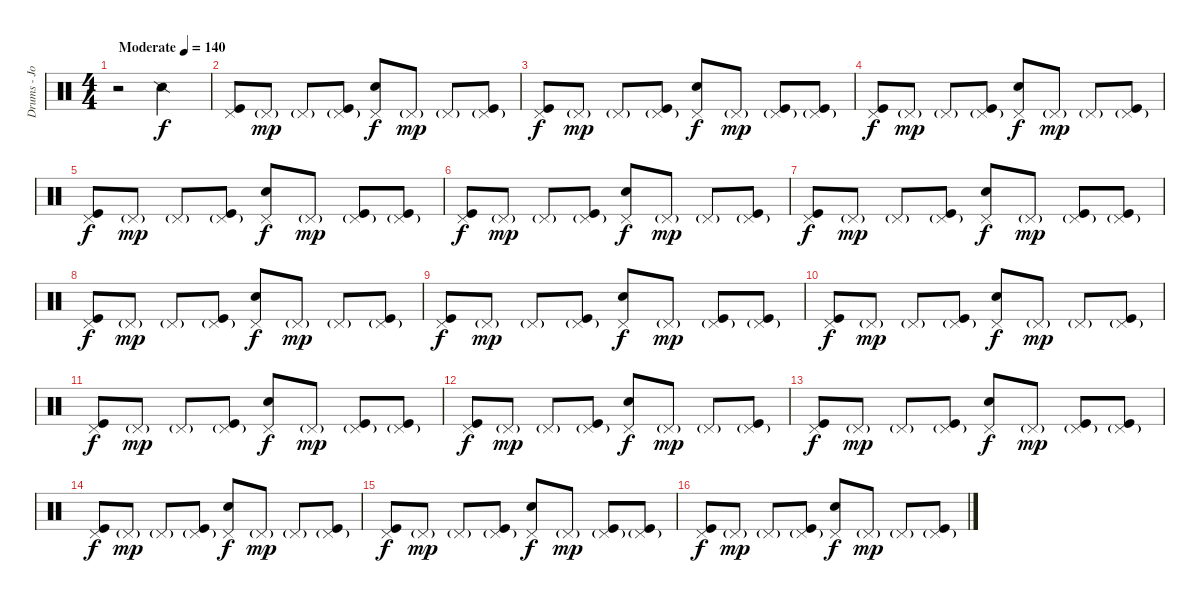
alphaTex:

\track ("Drums - Josh Klinghoffer" "Drums - Jo") {instrument percussion}
\staff {score}
\articulation defaults
\ts (4 4)
\tempo (140 "Moderate")
\clef neutral
\ks c
r.2{dy f} "Snare (side stick) 2".2 |
("Pedal Hi-Hat (hit)" "Kick (hit)").8 "Pedal Hi-Hat (hit)"{g}.8{dy mp} "Pedal Hi-Hat (hit)"{g}.8 ("Pedal Hi-Hat (hit)"{g} "Kick (hit)").8 ("Pedal Hi-Hat (hit)" "Electric Snare (hit)").8{dy f} "Pedal Hi-Hat (hit)"{g}.8{dy mp} "Pedal Hi-Hat (hit)"{g}.8 ("Pedal Hi-Hat (hit)"{g} "Kick (hit)").8 |
("Pedal Hi-Hat (hit)" "Kick (hit)").8{dy f} "Pedal Hi-Hat (hit)"{g}.8{dy mp} "Pedal Hi-Hat (hit)"{g}.8 ("Pedal Hi-Hat (hit)"{g} "Kick (hit)").8 ("Pedal Hi-Hat (hit)" "Electric Snare (hit)").8{dy f} "Pedal Hi-Hat (hit)"{g}.8{dy mp} ("Pedal Hi-Hat (hit)"{g} "Kick (hit)").8 ("Pedal Hi-Hat (hit)"{g} "Kick (hit)").8 |
("Pedal Hi-Hat (hit)" "Kick (hit)").8{dy f} "Pedal Hi-Hat (hit)"{g}.8{dy mp} "Pedal Hi-Hat (hit)"{g}.8 ("Pedal Hi-Hat (hit)"{g} "Kick (hit)").8 ("Pedal Hi-Hat (hit)" "Electric Snare (hit)").8{dy f} "Pedal Hi-Hat (hit)"{g}.8{dy mp} "Pedal Hi-Hat (hit)"{g}.8 ("Pedal Hi-Hat (hit)"{g} "Kick (hit)").8 |
("Pedal Hi-Hat (hit)" "Kick (hit)").8{dy f} "Pedal Hi-Hat (hit)"{g}.8{dy mp} "Pedal Hi-Hat (hit)"{g}.8 ("Pedal Hi-Hat (hit)"{g} "Kick (hit)").8 ("Pedal Hi-Hat (hit)" "Electric Snare (hit)").8{dy f} "Pedal Hi-Hat (hit)"{g}.8{dy mp} ("Pedal Hi-Hat (hit)"{g} "Kick (hit)").8 ("Pedal Hi-Hat (hit)"{g} "Kick (hit)").8 |
("Pedal Hi-Hat (hit)" "Kick (hit)").8{dy f} "Pedal Hi-Hat (hit)"{g}.8{dy mp} "Pedal Hi-Hat (hit)"{g}.8 ("Pedal Hi-Hat (hit)"{g} "Kick (hit)").8 ("Pedal Hi-Hat (hit)" "Electric Snare (hit)").8{dy f} "Pedal Hi-Hat (hit)"{g}.8{dy mp} "Pedal Hi-Hat (hit)"{g}.8 ("Pedal Hi-Hat (hit)"{g} "Kick (hit)").8 |
("Pedal Hi-Hat (hit)" "Kick (hit)").8{dy f} "Pedal Hi-Hat (hit)"{g}.8{dy mp} "Pedal Hi-Hat (hit)"{g}.8 ("Pedal Hi-Hat (hit)"{g} "Kick (hit)").8 ("Pedal Hi-Hat (hit)" "Electric Snare (hit)").8{dy f} "Pedal Hi-Hat (hit)"{g}.8{dy mp} ("Pedal Hi-Hat (hit)"{g} "Kick (hit)").8 ("Pedal Hi-Hat (hit)"{g} "Kick (hit)").8 |
("Pedal Hi-Hat (hit)" "Kick (hit)").8{dy f} "Pedal Hi-Hat (hit)"{g}.8{dy mp} "Pedal Hi-Hat (hit)"{g}.8 ("Pedal Hi-Hat (hit)"{g} "Kick (hit)").8 ("Pedal Hi-Hat (hit)" "Electric Snare (hit)").8{dy f} "Pedal Hi-Hat (hit)"{g}.8{dy mp} "Pedal Hi-Hat (hit)"{g}.8 ("Pedal Hi-Hat (hit)"{g} "Kick (hit)").8 |
("Pedal Hi-Hat (hit)" "Kick (hit)").8{dy f} "Pedal Hi-Hat (hit)"{g}.8{dy mp} "Pedal Hi-Hat (hit)"{g}.8 ("Pedal Hi-Hat (hit)"{g} "Kick (hit)").8 ("Pedal Hi-Hat (hit)" "Electric Snare (hit)").8{dy f} "Pedal Hi-Hat (hit)"{g}.8{dy mp} ("Pedal Hi-Hat (hit)"{g} "Kick (hit)").8 ("Pedal Hi-Hat (hit)"{g} "Kick (hit)").8 |
("Pedal Hi-Hat (hit)" "Kick (hit)").8{dy f} "Pedal Hi-Hat (hit)"{g}.8{dy mp} "Pedal Hi-Hat (hit)"{g}.8 ("Pedal Hi-Hat (hit)"{g} "Kick (hit)").8 ("Pedal Hi-Hat (hit)" "Electric Snare (hit)").8{dy f} "Pedal Hi-Hat (hit)"{g}.8{dy mp} "Pedal Hi-Hat (hit)"{g}.8 ("Pedal Hi-Hat (hit)"{g} "Kick (hit)").8 |
("Pedal Hi-Hat (hit)" "Kick (hit)").8{dy f} "Pedal Hi-Hat (hit)"{g}.8{dy mp} "Pedal Hi-Hat (hit)"{g}.8 ("Pedal Hi-Hat (hit)"{g} "Kick (hit)").8 ("Pedal Hi-Hat (hit)" "Electric Snare (hit)").8{dy f} "Pedal Hi-Hat (hit)"{g}.8{dy mp} ("Pedal Hi-Hat (hit)"{g} "Kick (hit)").8 ("Pedal Hi-Hat (hit)"{g} "Kick (hit)").8 |
("Pedal Hi-Hat (hit)" "Kick (hit)").8{dy f} "Pedal Hi-Hat (hit)"{g}.8{dy mp} "Pedal Hi-Hat (hit)"{g}.8 ("Pedal Hi-Hat (hit)"{g} "Kick (hit)").8 ("Pedal Hi-Hat (hit)" "Electric Snare (hit)").8{dy f} "Pedal Hi-Hat (hit)"{g}.8{dy mp} "Pedal Hi-Hat (hit)"{g}.8 ("Pedal Hi-Hat (hit)"{g} "Kick (hit)").8 |
("Pedal Hi-Hat (hit)" "Kick (hit)").8{dy f} "Pedal Hi-Hat (hit)"{g}.8{dy mp} "Pedal Hi-Hat (hit)"{g}.8 ("Pedal Hi-Hat (hit)"{g} "Kick (hit)").8 ("Pedal Hi-Hat (hit)" "Electric Snare (hit)").8{dy f} "Pedal Hi-Hat (hit)"{g}.8{dy mp} ("Pedal Hi-Hat (hit)"{g} "Kick (hit)").8 ("Pedal Hi-Hat (hit)"{g} "Kick (hit)").8 |
("Pedal Hi-Hat (hit)" "Kick (hit)").8{dy f} "Pedal Hi-Hat (hit)"{g}.8{dy mp} "Pedal Hi-Hat (hit)"{g}.8 ("Pedal Hi-Hat (hit)"{g} "Kick (hit)").8 ("Pedal Hi-Hat (hit)" "Electric Snare (hit)").8{dy f} "Pedal Hi-Hat (hit)"{g}.8{dy mp} "Pedal Hi-Hat (hit)"{g}.8 ("Pedal Hi-Hat (hit)"{g} "Kick (hit)").8 |
("Pedal Hi-Hat (hit)" "Kick (hit)").8{dy f} "Pedal Hi-Hat (hit)"{g}.8{dy mp} "Pedal Hi-Hat (hit)"{g}.8 ("Pedal Hi-Hat (hit)"{g} "Kick (hit)").8 ("Pedal Hi-Hat (hit)" "Electric Snare (hit)").8{dy f} "Pedal Hi-Hat (hit)"{g}.8{dy mp} ("Pedal Hi-Hat (hit)"{g} "Kick (hit)").8 ("Pedal Hi-Hat (hit)"{g} "Kick (hit)").8 |
("Pedal Hi-Hat (hit)" "Kick (hit)").8{dy f} "Pedal Hi-Hat (hit)"{g}.8{dy mp} "Pedal Hi-Hat (hit)"{g}.8 ("Pedal Hi-Hat (hit)"{g} "Kick (hit)").8 ("Pedal Hi-Hat (hit)" "Electric Snare (hit)").8{dy f} "Pedal Hi-Hat (hit)"{g}.8{dy mp} "Pedal Hi-Hat (hit)"{g}.8 ("Pedal Hi-Hat (hit)"{g} "Kick (hit)").8
